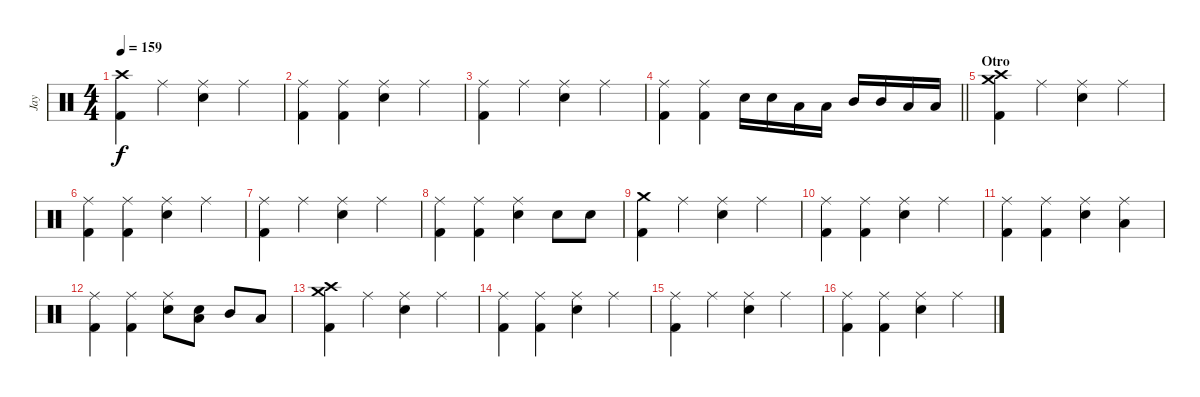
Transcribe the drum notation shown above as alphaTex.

\track ("Jay" "Jay") {instrument percussion}
\staff {score}
\articulation defaults
\ts (4 4)
\tempo 159
\clef neutral
\ks c
("Crash high (hit)" "Kick (hit) 2").4{dy f} "Ride (middle)".4 ("Ride (middle)" "Electric Snare (hit)").4 "Ride (middle)".4 |
("Ride (middle)" "Kick (hit) 2").4 ("Ride (middle)" "Kick (hit) 2").4 ("Ride (middle)" "Electric Snare (hit)").4 "Ride (middle)".4 |
("Ride (middle)" "Kick (hit) 2").4 "Ride (middle)".4 ("Ride (middle)" "Electric Snare (hit)").4 "Ride (middle)".4 |
\barLineRight lightlight
("Ride (middle)" "Kick (hit) 2").4 ("Ride (middle)" "Kick (hit) 2").4 "Electric Snare (hit)".16 "Electric Snare (hit)".16 "Low Tom (hit)".16 "Low Tom (hit)".16 "Mid Tom (hit)".16 "Mid Tom (hit)".16 "Low Tom (hit)".16 "Low Tom (hit)".16 |
\section ("" "Otro")
("Crash medium (hit)" "Crash high (hit)" "Kick (hit) 2").4 "Ride (middle)".4 ("Ride (middle)" "Electric Snare (hit)").4 "Ride (middle)".4 |
("Ride (middle)" "Kick (hit) 2").4 ("Ride (middle)" "Kick (hit) 2").4 ("Ride (middle)" "Electric Snare (hit)").4 "Ride (middle)".4 |
("Ride (middle)" "Kick (hit) 2").4 "Ride (middle)".4 ("Ride (middle)" "Electric Snare (hit)").4 "Ride (middle)".4 |
("Ride (middle)" "Kick (hit) 2").4 ("Ride (middle)" "Kick (hit) 2").4 ("Ride (middle)" "Electric Snare (hit)").4 "Electric Snare (hit)".8 "Electric Snare (hit)".8 |
("Crash medium (hit)" "Kick (hit) 2").4 "Ride (middle)".4 ("Ride (middle)" "Electric Snare (hit)").4 "Ride (middle)".4 |
("Ride (middle)" "Kick (hit) 2").4 ("Ride (middle)" "Kick (hit) 2").4 ("Ride (middle)" "Electric Snare (hit)").4 "Ride (middle)".4 |
("Ride (middle)" "Kick (hit) 2").4 ("Ride (middle)" "Kick (hit) 2").4 ("Ride (middle)" "Electric Snare (hit)").4 ("Ride (middle)" "Low Tom (hit)").4 |
("Ride (middle)" "Kick (hit) 2").4 ("Ride (middle)" "Kick (hit) 2").4 ("Ride (middle)" "Electric Snare (hit)").8 ("Low Tom (hit)" "Snare (hit)").8 "Mid Tom (hit)".8 "Low Tom (hit)".8 |
("Crash medium (hit)" "Crash high (hit)" "Kick (hit) 2").4 "Ride (middle)".4 ("Ride (middle)" "Electric Snare (hit)").4 "Ride (middle)".4 |
("Ride (middle)" "Kick (hit) 2").4 ("Ride (middle)" "Kick (hit) 2").4 ("Ride (middle)" "Electric Snare (hit)").4 "Ride (middle)".4 |
("Ride (middle)" "Kick (hit) 2").4 "Ride (middle)".4 ("Ride (middle)" "Electric Snare (hit)").4 "Ride (middle)".4 |
("Ride (middle)" "Kick (hit) 2").4 ("Ride (middle)" "Kick (hit) 2").4 ("Ride (middle)" "Electric Snare (hit)").4 "Ride (middle)".4
